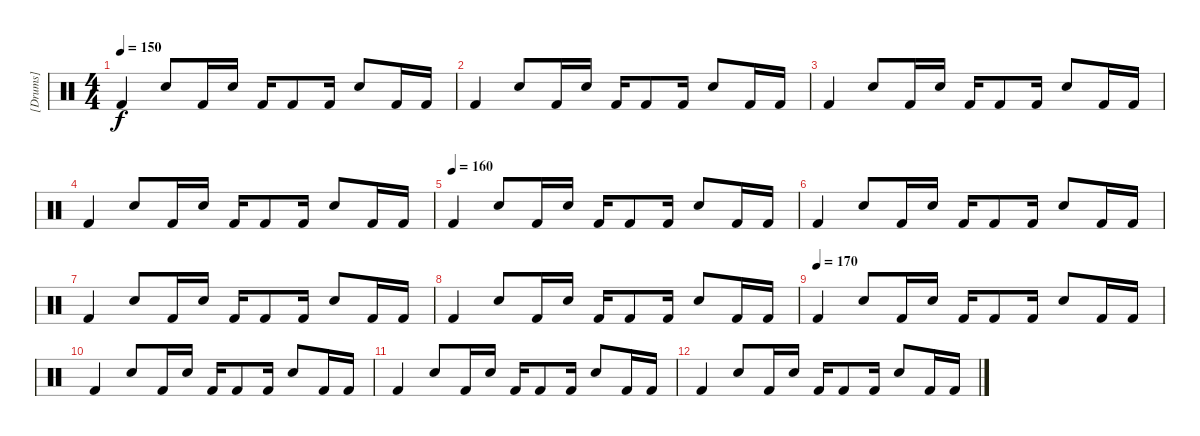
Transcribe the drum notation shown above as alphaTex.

\track ("[Drums]" "[Drums]") {instrument percussion}
\staff {score}
\articulation defaults
\ts (4 4)
\tempo 150
\clef neutral
\ks c "Kick (hit) 2".4{dy f} "Electric Snare (hit)".8 "Kick (hit) 2".16 "Electric Snare (hit)".16 "Kick (hit) 2".16 "Kick (hit) 2".8 "Kick (hit) 2".16 "Electric Snare (hit)".8 "Kick (hit) 2".16 "Kick (hit) 2".16
|
"Kick (hit) 2".4 "Electric Snare (hit)".8 "Kick (hit) 2".16 "Electric Snare (hit)".16 "Kick (hit) 2".16 "Kick (hit) 2".8 "Kick (hit) 2".16 "Electric Snare (hit)".8 "Kick (hit) 2".16 "Kick (hit) 2".16 |
"Kick (hit) 2".4 "Electric Snare (hit)".8 "Kick (hit) 2".16 "Electric Snare (hit)".16 "Kick (hit) 2".16 "Kick (hit) 2".8 "Kick (hit) 2".16 "Electric Snare (hit)".8 "Kick (hit) 2".16 "Kick (hit) 2".16 |
"Kick (hit) 2".4 "Electric Snare (hit)".8 "Kick (hit) 2".16 "Electric Snare (hit)".16 "Kick (hit) 2".16 "Kick (hit) 2".8 "Kick (hit) 2".16 "Electric Snare (hit)".8 "Kick (hit) 2".16 "Kick (hit) 2".16 |
\tempo (160)
"Kick (hit) 2".4 "Electric Snare (hit)".8 "Kick (hit) 2".16 "Electric Snare (hit)".16 "Kick (hit) 2".16 "Kick (hit) 2".8 "Kick (hit) 2".16 "Electric Snare (hit)".8 "Kick (hit) 2".16 "Kick (hit) 2".16 |
"Kick (hit) 2".4 "Electric Snare (hit)".8 "Kick (hit) 2".16 "Electric Snare (hit)".16 "Kick (hit) 2".16 "Kick (hit) 2".8 "Kick (hit) 2".16 "Electric Snare (hit)".8 "Kick (hit) 2".16 "Kick (hit) 2".16 |
"Kick (hit) 2".4 "Electric Snare (hit)".8 "Kick (hit) 2".16 "Electric Snare (hit)".16 "Kick (hit) 2".16 "Kick (hit) 2".8 "Kick (hit) 2".16 "Electric Snare (hit)".8 "Kick (hit) 2".16 "Kick (hit) 2".16 |
"Kick (hit) 2".4 "Electric Snare (hit)".8 "Kick (hit) 2".16 "Electric Snare (hit)".16 "Kick (hit) 2".16 "Kick (hit) 2".8 "Kick (hit) 2".16 "Electric Snare (hit)".8 "Kick (hit) 2".16 "Kick (hit) 2".16 |
\tempo (170)
"Kick (hit) 2".4 "Electric Snare (hit)".8 "Kick (hit) 2".16 "Electric Snare (hit)".16 "Kick (hit) 2".16 "Kick (hit) 2".8 "Kick (hit) 2".16 "Electric Snare (hit)".8 "Kick (hit) 2".16 "Kick (hit) 2".16 |
"Kick (hit) 2".4 "Electric Snare (hit)".8 "Kick (hit) 2".16 "Electric Snare (hit)".16 "Kick (hit) 2".16 "Kick (hit) 2".8 "Kick (hit) 2".16 "Electric Snare (hit)".8 "Kick (hit) 2".16 "Kick (hit) 2".16 |
"Kick (hit) 2".4 "Electric Snare (hit)".8 "Kick (hit) 2".16 "Electric Snare (hit)".16 "Kick (hit) 2".16 "Kick (hit) 2".8 "Kick (hit) 2".16 "Electric Snare (hit)".8 "Kick (hit) 2".16 "Kick (hit) 2".16 |
"Kick (hit) 2".4 "Electric Snare (hit)".8 "Kick (hit) 2".16 "Electric Snare (hit)".16 "Kick (hit) 2".16 "Kick (hit) 2".8 "Kick (hit) 2".16 "Electric Snare (hit)".8 "Kick (hit) 2".16 "Kick (hit) 2".16
